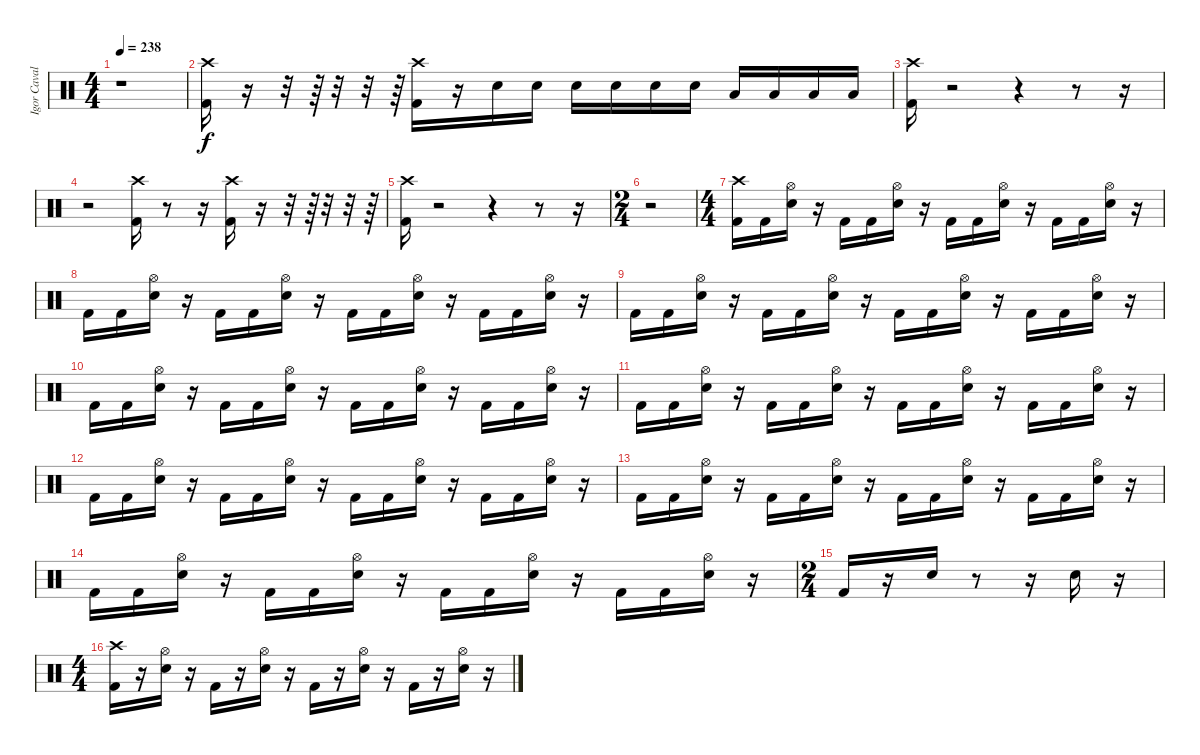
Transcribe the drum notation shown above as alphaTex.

\track ("Igor Cavalera" "Igor Caval") {instrument percussion}
\staff {score}
\articulation defaults
\ts (4 4)
\tempo 238
\clef neutral
\ks c
r.1{dy f} |
("Kick (hit) 2" "Crash high (hit)").16 r.16 r.32 r.64 r.32 r.32 r.64 ("Crash high (hit)" "Kick (hit) 2").16 r.16 "Snare (hit) 2".16 "Snare (hit) 2".16 "Snare (hit) 2".16 "Snare (hit) 2".16 "Snare (hit) 2".16 "Snare (hit) 2".16 "Low Tom (hit)".16 "Low Tom (hit)".16 "Low Floor Tom (hit)".16 "Low Floor Tom (hit)".16 |
("Kick (hit) 2" "Crash high (hit)").16 r.2 r.4 r.8 r.16 |
r.2 ("Crash high (hit)" "Kick (hit) 2").16 r.8 r.16 ("Crash high (hit)" "Kick (hit) 2").16 r.16 r.32 r.64 r.32 r.32 r.64 |
("Kick (hit) 2" "Crash high (hit)").16 r.2 r.4 r.8 r.16 |
\ts (2 4)
r.2 |
\ts (4 4)
("Crash high (hit)" "Kick (hit) 2").16 "Kick (hit) 2".16 ("Snare (hit) 2" "Hi-Hat (open)").16 r.16 "Kick (hit) 2".16 "Kick (hit) 2".16 ("Snare (hit) 2" "Hi-Hat (open)").16 r.16 "Kick (hit) 2".16 "Kick (hit) 2".16 ("Snare (hit) 2" "Hi-Hat (open)").16 r.16 "Kick (hit) 2".16 "Kick (hit) 2".16 ("Snare (hit) 2" "Hi-Hat (open)").16 r.16 |
"Kick (hit) 2".16 "Kick (hit) 2".16 ("Snare (hit) 2" "Hi-Hat (open)").16 r.16 "Kick (hit) 2".16 "Kick (hit) 2".16 ("Snare (hit) 2" "Hi-Hat (open)").16 r.16 "Kick (hit) 2".16 "Kick (hit) 2".16 ("Snare (hit) 2" "Hi-Hat (open)").16 r.16 "Kick (hit) 2".16 "Kick (hit) 2".16 ("Snare (hit) 2" "Hi-Hat (open)").16 r.16 |
"Kick (hit) 2".16 "Kick (hit) 2".16 ("Snare (hit) 2" "Hi-Hat (open)").16 r.16 "Kick (hit) 2".16 "Kick (hit) 2".16 ("Snare (hit) 2" "Hi-Hat (open)").16 r.16 "Kick (hit) 2".16 "Kick (hit) 2".16 ("Snare (hit) 2" "Hi-Hat (open)").16 r.16 "Kick (hit) 2".16 "Kick (hit) 2".16 ("Snare (hit) 2" "Hi-Hat (open)").16 r.16 |
"Kick (hit) 2".16 "Kick (hit) 2".16 ("Snare (hit) 2" "Hi-Hat (open)").16 r.16 "Kick (hit) 2".16 "Kick (hit) 2".16 ("Snare (hit) 2" "Hi-Hat (open)").16 r.16 "Kick (hit) 2".16 "Kick (hit) 2".16 ("Snare (hit) 2" "Hi-Hat (open)").16 r.16 "Kick (hit) 2".16 "Kick (hit) 2".16 ("Snare (hit) 2" "Hi-Hat (open)").16 r.16 |
"Kick (hit) 2".16 "Kick (hit) 2".16 ("Snare (hit) 2" "Hi-Hat (open)").16 r.16 "Kick (hit) 2".16 "Kick (hit) 2".16 ("Snare (hit) 2" "Hi-Hat (open)").16 r.16 "Kick (hit) 2".16 "Kick (hit) 2".16 ("Snare (hit) 2" "Hi-Hat (open)").16 r.16 "Kick (hit) 2".16 "Kick (hit) 2".16 ("Snare (hit) 2" "Hi-Hat (open)").16 r.16 |
"Kick (hit) 2".16 "Kick (hit) 2".16 ("Snare (hit) 2" "Hi-Hat (open)").16 r.16 "Kick (hit) 2".16 "Kick (hit) 2".16 ("Snare (hit) 2" "Hi-Hat (open)").16 r.16 "Kick (hit) 2".16 "Kick (hit) 2".16 ("Snare (hit) 2" "Hi-Hat (open)").16 r.16 "Kick (hit) 2".16 "Kick (hit) 2".16 ("Snare (hit) 2" "Hi-Hat (open)").16 r.16 |
"Kick (hit) 2".16 "Kick (hit) 2".16 ("Snare (hit) 2" "Hi-Hat (open)").16 r.16 "Kick (hit) 2".16 "Kick (hit) 2".16 ("Snare (hit) 2" "Hi-Hat (open)").16 r.16 "Kick (hit) 2".16 "Kick (hit) 2".16 ("Snare (hit) 2" "Hi-Hat (open)").16 r.16 "Kick (hit) 2".16 "Kick (hit) 2".16 ("Snare (hit) 2" "Hi-Hat (open)").16 r.16 |
"Kick (hit) 2".16 "Kick (hit) 2".16 ("Snare (hit) 2" "Hi-Hat (open)").16 r.16 "Kick (hit) 2".16 "Kick (hit) 2".16 ("Snare (hit) 2" "Hi-Hat (open)").16 r.16 "Kick (hit) 2".16 "Kick (hit) 2".16 ("Snare (hit) 2" "Hi-Hat (open)").16 r.16 "Kick (hit) 2".16 "Kick (hit) 2".16 ("Snare (hit) 2" "Hi-Hat (open)").16 r.16 |
\ts (2 4)
"Kick (hit) 2".16 r.16 "Snare (hit) 2".16 r.8 r.16 "Snare (hit) 2".16 r.16 |
\ts (4 4)
("Crash high (hit)" "Kick (hit) 2").16 r.16 ("Snare (hit) 2" "Hi-Hat (open)").16 r.16 "Kick (hit) 2".16 r.16 ("Snare (hit) 2" "Hi-Hat (open)").16 r.16 "Kick (hit) 2".16 r.16 ("Snare (hit) 2" "Hi-Hat (open)").16 r.16 "Kick (hit) 2".16 r.16 ("Snare (hit) 2" "Hi-Hat (open)").16 r.16
